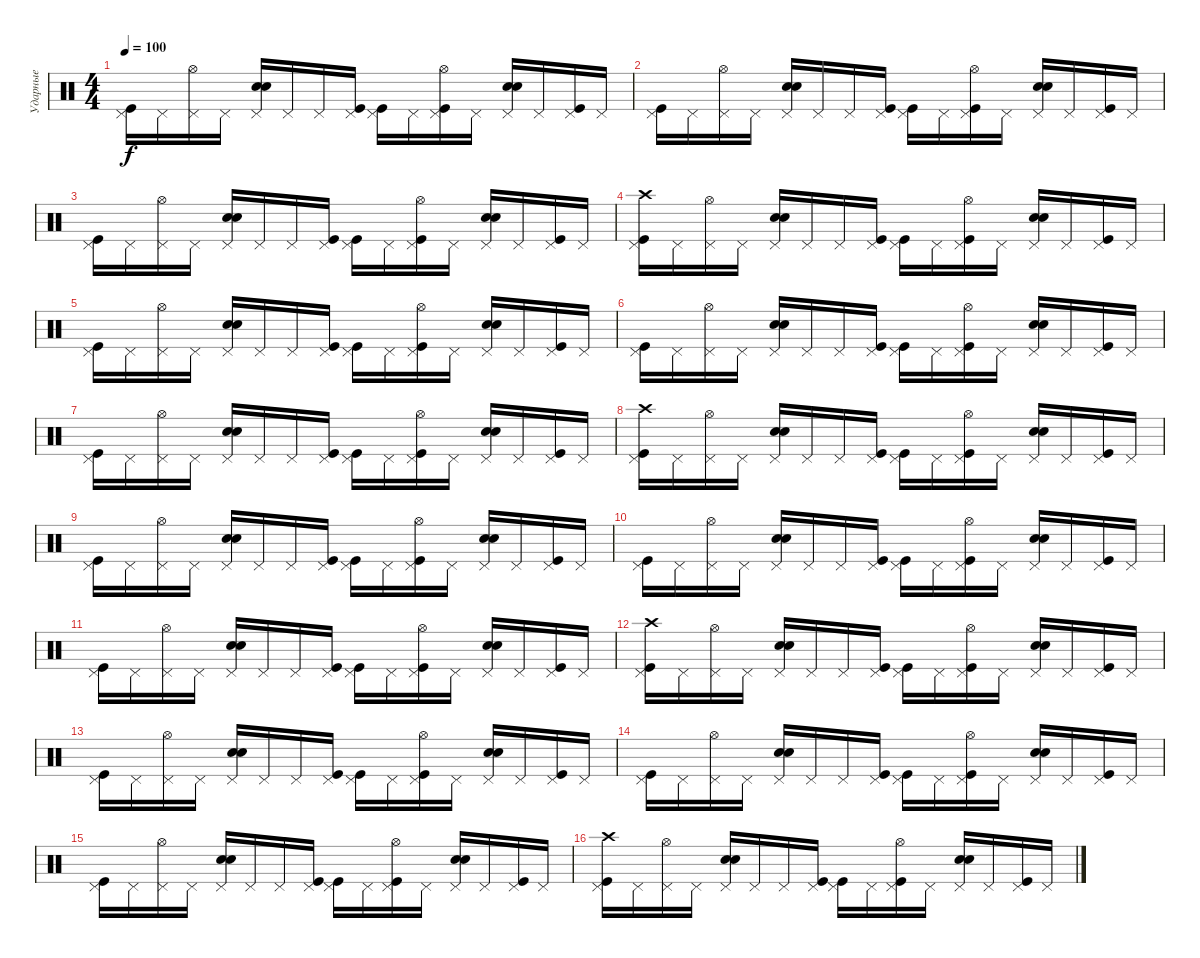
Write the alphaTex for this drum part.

\track ("Ударные" "Ударные") {instrument percussion}
\staff {score}
\articulation defaults
\ts (4 4)
\tempo 100
\clef neutral
\ks c
("Kick (hit)" "Pedal Hi-Hat (hit)").16{dy f} "Pedal Hi-Hat (hit)".16 ("Pedal Hi-Hat (hit)" "Hi-Hat (open)").16 "Pedal Hi-Hat (hit)".16 ("Pedal Hi-Hat (hit)" "Electric Snare (hit)" "Hand Clap (hit)").16 "Pedal Hi-Hat (hit)".16 "Pedal Hi-Hat (hit)".16 ("Kick (hit)" "Pedal Hi-Hat (hit)").16 ("Kick (hit)" "Pedal Hi-Hat (hit)").16 "Pedal Hi-Hat (hit)".16 ("Kick (hit)" "Pedal Hi-Hat (hit)" "Hi-Hat (open)").16 "Pedal Hi-Hat (hit)".16 ("Pedal Hi-Hat (hit)" "Electric Snare (hit)" "Hand Clap (hit)").16 "Pedal Hi-Hat (hit)".16 ("Kick (hit)" "Pedal Hi-Hat (hit)").16 "Pedal Hi-Hat (hit)".16 |
("Kick (hit)" "Pedal Hi-Hat (hit)").16 "Pedal Hi-Hat (hit)".16 ("Pedal Hi-Hat (hit)" "Hi-Hat (open)").16 "Pedal Hi-Hat (hit)".16 ("Pedal Hi-Hat (hit)" "Electric Snare (hit)" "Hand Clap (hit)").16 "Pedal Hi-Hat (hit)".16 "Pedal Hi-Hat (hit)".16 ("Kick (hit)" "Pedal Hi-Hat (hit)").16 ("Kick (hit)" "Pedal Hi-Hat (hit)").16 "Pedal Hi-Hat (hit)".16 ("Kick (hit)" "Pedal Hi-Hat (hit)" "Hi-Hat (open)").16 "Pedal Hi-Hat (hit)".16 ("Pedal Hi-Hat (hit)" "Electric Snare (hit)" "Hand Clap (hit)").16 "Pedal Hi-Hat (hit)".16 ("Kick (hit)" "Pedal Hi-Hat (hit)").16 "Pedal Hi-Hat (hit)".16 |
("Kick (hit)" "Pedal Hi-Hat (hit)").16 "Pedal Hi-Hat (hit)".16 ("Pedal Hi-Hat (hit)" "Hi-Hat (open)").16 "Pedal Hi-Hat (hit)".16 ("Pedal Hi-Hat (hit)" "Electric Snare (hit)" "Hand Clap (hit)").16 "Pedal Hi-Hat (hit)".16 "Pedal Hi-Hat (hit)".16 ("Kick (hit)" "Pedal Hi-Hat (hit)").16 ("Kick (hit)" "Pedal Hi-Hat (hit)").16 "Pedal Hi-Hat (hit)".16 ("Kick (hit)" "Pedal Hi-Hat (hit)" "Hi-Hat (open)").16 "Pedal Hi-Hat (hit)".16 ("Pedal Hi-Hat (hit)" "Electric Snare (hit)" "Hand Clap (hit)").16 "Pedal Hi-Hat (hit)".16 ("Kick (hit)" "Pedal Hi-Hat (hit)").16 "Pedal Hi-Hat (hit)".16 |
("Kick (hit)" "Pedal Hi-Hat (hit)" "Crash high (hit)").16 "Pedal Hi-Hat (hit)".16 ("Pedal Hi-Hat (hit)" "Hi-Hat (open)").16 "Pedal Hi-Hat (hit)".16 ("Pedal Hi-Hat (hit)" "Electric Snare (hit)" "Hand Clap (hit)").16 "Pedal Hi-Hat (hit)".16 "Pedal Hi-Hat (hit)".16 ("Kick (hit)" "Pedal Hi-Hat (hit)").16 ("Kick (hit)" "Pedal Hi-Hat (hit)").16 "Pedal Hi-Hat (hit)".16 ("Kick (hit)" "Pedal Hi-Hat (hit)" "Hi-Hat (open)").16 "Pedal Hi-Hat (hit)".16 ("Pedal Hi-Hat (hit)" "Electric Snare (hit)" "Hand Clap (hit)").16 "Pedal Hi-Hat (hit)".16 ("Kick (hit)" "Pedal Hi-Hat (hit)").16 "Pedal Hi-Hat (hit)".16 |
("Kick (hit)" "Pedal Hi-Hat (hit)").16 "Pedal Hi-Hat (hit)".16 ("Pedal Hi-Hat (hit)" "Hi-Hat (open)").16 "Pedal Hi-Hat (hit)".16 ("Pedal Hi-Hat (hit)" "Electric Snare (hit)" "Hand Clap (hit)").16 "Pedal Hi-Hat (hit)".16 "Pedal Hi-Hat (hit)".16 ("Kick (hit)" "Pedal Hi-Hat (hit)").16 ("Kick (hit)" "Pedal Hi-Hat (hit)").16 "Pedal Hi-Hat (hit)".16 ("Kick (hit)" "Pedal Hi-Hat (hit)" "Hi-Hat (open)").16 "Pedal Hi-Hat (hit)".16 ("Pedal Hi-Hat (hit)" "Electric Snare (hit)" "Hand Clap (hit)").16 "Pedal Hi-Hat (hit)".16 ("Kick (hit)" "Pedal Hi-Hat (hit)").16 "Pedal Hi-Hat (hit)".16 |
("Kick (hit)" "Pedal Hi-Hat (hit)").16 "Pedal Hi-Hat (hit)".16 ("Pedal Hi-Hat (hit)" "Hi-Hat (open)").16 "Pedal Hi-Hat (hit)".16 ("Pedal Hi-Hat (hit)" "Electric Snare (hit)" "Hand Clap (hit)").16 "Pedal Hi-Hat (hit)".16 "Pedal Hi-Hat (hit)".16 ("Kick (hit)" "Pedal Hi-Hat (hit)").16 ("Kick (hit)" "Pedal Hi-Hat (hit)").16 "Pedal Hi-Hat (hit)".16 ("Kick (hit)" "Pedal Hi-Hat (hit)" "Hi-Hat (open)").16 "Pedal Hi-Hat (hit)".16 ("Pedal Hi-Hat (hit)" "Electric Snare (hit)" "Hand Clap (hit)").16 "Pedal Hi-Hat (hit)".16 ("Kick (hit)" "Pedal Hi-Hat (hit)").16 "Pedal Hi-Hat (hit)".16 |
("Kick (hit)" "Pedal Hi-Hat (hit)").16 "Pedal Hi-Hat (hit)".16 ("Pedal Hi-Hat (hit)" "Hi-Hat (open)").16 "Pedal Hi-Hat (hit)".16 ("Pedal Hi-Hat (hit)" "Electric Snare (hit)" "Hand Clap (hit)").16 "Pedal Hi-Hat (hit)".16 "Pedal Hi-Hat (hit)".16 ("Kick (hit)" "Pedal Hi-Hat (hit)").16 ("Kick (hit)" "Pedal Hi-Hat (hit)").16 "Pedal Hi-Hat (hit)".16 ("Kick (hit)" "Pedal Hi-Hat (hit)" "Hi-Hat (open)").16 "Pedal Hi-Hat (hit)".16 ("Pedal Hi-Hat (hit)" "Electric Snare (hit)" "Hand Clap (hit)").16 "Pedal Hi-Hat (hit)".16 ("Kick (hit)" "Pedal Hi-Hat (hit)").16 "Pedal Hi-Hat (hit)".16 |
("Kick (hit)" "Pedal Hi-Hat (hit)" "Crash high (hit)").16 "Pedal Hi-Hat (hit)".16 ("Pedal Hi-Hat (hit)" "Hi-Hat (open)").16 "Pedal Hi-Hat (hit)".16 ("Pedal Hi-Hat (hit)" "Electric Snare (hit)" "Hand Clap (hit)").16 "Pedal Hi-Hat (hit)".16 "Pedal Hi-Hat (hit)".16 ("Kick (hit)" "Pedal Hi-Hat (hit)").16 ("Kick (hit)" "Pedal Hi-Hat (hit)").16 "Pedal Hi-Hat (hit)".16 ("Kick (hit)" "Pedal Hi-Hat (hit)" "Hi-Hat (open)").16 "Pedal Hi-Hat (hit)".16 ("Pedal Hi-Hat (hit)" "Electric Snare (hit)" "Hand Clap (hit)").16 "Pedal Hi-Hat (hit)".16 ("Kick (hit)" "Pedal Hi-Hat (hit)").16 "Pedal Hi-Hat (hit)".16 |
("Kick (hit)" "Pedal Hi-Hat (hit)").16 "Pedal Hi-Hat (hit)".16 ("Pedal Hi-Hat (hit)" "Hi-Hat (open)").16 "Pedal Hi-Hat (hit)".16 ("Pedal Hi-Hat (hit)" "Electric Snare (hit)" "Hand Clap (hit)").16 "Pedal Hi-Hat (hit)".16 "Pedal Hi-Hat (hit)".16 ("Kick (hit)" "Pedal Hi-Hat (hit)").16 ("Kick (hit)" "Pedal Hi-Hat (hit)").16 "Pedal Hi-Hat (hit)".16 ("Kick (hit)" "Pedal Hi-Hat (hit)" "Hi-Hat (open)").16 "Pedal Hi-Hat (hit)".16 ("Pedal Hi-Hat (hit)" "Electric Snare (hit)" "Hand Clap (hit)").16 "Pedal Hi-Hat (hit)".16 ("Kick (hit)" "Pedal Hi-Hat (hit)").16 "Pedal Hi-Hat (hit)".16 |
("Kick (hit)" "Pedal Hi-Hat (hit)").16 "Pedal Hi-Hat (hit)".16 ("Pedal Hi-Hat (hit)" "Hi-Hat (open)").16 "Pedal Hi-Hat (hit)".16 ("Pedal Hi-Hat (hit)" "Electric Snare (hit)" "Hand Clap (hit)").16 "Pedal Hi-Hat (hit)".16 "Pedal Hi-Hat (hit)".16 ("Kick (hit)" "Pedal Hi-Hat (hit)").16 ("Kick (hit)" "Pedal Hi-Hat (hit)").16 "Pedal Hi-Hat (hit)".16 ("Kick (hit)" "Pedal Hi-Hat (hit)" "Hi-Hat (open)").16 "Pedal Hi-Hat (hit)".16 ("Pedal Hi-Hat (hit)" "Electric Snare (hit)" "Hand Clap (hit)").16 "Pedal Hi-Hat (hit)".16 ("Kick (hit)" "Pedal Hi-Hat (hit)").16 "Pedal Hi-Hat (hit)".16 |
("Kick (hit)" "Pedal Hi-Hat (hit)").16 "Pedal Hi-Hat (hit)".16 ("Pedal Hi-Hat (hit)" "Hi-Hat (open)").16 "Pedal Hi-Hat (hit)".16 ("Pedal Hi-Hat (hit)" "Electric Snare (hit)" "Hand Clap (hit)").16 "Pedal Hi-Hat (hit)".16 "Pedal Hi-Hat (hit)".16 ("Kick (hit)" "Pedal Hi-Hat (hit)").16 ("Kick (hit)" "Pedal Hi-Hat (hit)").16 "Pedal Hi-Hat (hit)".16 ("Kick (hit)" "Pedal Hi-Hat (hit)" "Hi-Hat (open)").16 "Pedal Hi-Hat (hit)".16 ("Pedal Hi-Hat (hit)" "Electric Snare (hit)" "Hand Clap (hit)").16 "Pedal Hi-Hat (hit)".16 ("Kick (hit)" "Pedal Hi-Hat (hit)").16 "Pedal Hi-Hat (hit)".16 |
("Kick (hit)" "Pedal Hi-Hat (hit)" "Crash high (hit)").16 "Pedal Hi-Hat (hit)".16 ("Pedal Hi-Hat (hit)" "Hi-Hat (open)").16 "Pedal Hi-Hat (hit)".16 ("Pedal Hi-Hat (hit)" "Electric Snare (hit)" "Hand Clap (hit)").16 "Pedal Hi-Hat (hit)".16 "Pedal Hi-Hat (hit)".16 ("Kick (hit)" "Pedal Hi-Hat (hit)").16 ("Kick (hit)" "Pedal Hi-Hat (hit)").16 "Pedal Hi-Hat (hit)".16 ("Kick (hit)" "Pedal Hi-Hat (hit)" "Hi-Hat (open)").16 "Pedal Hi-Hat (hit)".16 ("Pedal Hi-Hat (hit)" "Electric Snare (hit)" "Hand Clap (hit)").16 "Pedal Hi-Hat (hit)".16 ("Kick (hit)" "Pedal Hi-Hat (hit)").16 "Pedal Hi-Hat (hit)".16 |
("Kick (hit)" "Pedal Hi-Hat (hit)").16 "Pedal Hi-Hat (hit)".16 ("Pedal Hi-Hat (hit)" "Hi-Hat (open)").16 "Pedal Hi-Hat (hit)".16 ("Pedal Hi-Hat (hit)" "Electric Snare (hit)" "Hand Clap (hit)").16 "Pedal Hi-Hat (hit)".16 "Pedal Hi-Hat (hit)".16 ("Kick (hit)" "Pedal Hi-Hat (hit)").16 ("Kick (hit)" "Pedal Hi-Hat (hit)").16 "Pedal Hi-Hat (hit)".16 ("Kick (hit)" "Pedal Hi-Hat (hit)" "Hi-Hat (open)").16 "Pedal Hi-Hat (hit)".16 ("Pedal Hi-Hat (hit)" "Electric Snare (hit)" "Hand Clap (hit)").16 "Pedal Hi-Hat (hit)".16 ("Kick (hit)" "Pedal Hi-Hat (hit)").16 "Pedal Hi-Hat (hit)".16 |
("Kick (hit)" "Pedal Hi-Hat (hit)").16 "Pedal Hi-Hat (hit)".16 ("Pedal Hi-Hat (hit)" "Hi-Hat (open)").16 "Pedal Hi-Hat (hit)".16 ("Pedal Hi-Hat (hit)" "Electric Snare (hit)" "Hand Clap (hit)").16 "Pedal Hi-Hat (hit)".16 "Pedal Hi-Hat (hit)".16 ("Kick (hit)" "Pedal Hi-Hat (hit)").16 ("Kick (hit)" "Pedal Hi-Hat (hit)").16 "Pedal Hi-Hat (hit)".16 ("Kick (hit)" "Pedal Hi-Hat (hit)" "Hi-Hat (open)").16 "Pedal Hi-Hat (hit)".16 ("Pedal Hi-Hat (hit)" "Electric Snare (hit)" "Hand Clap (hit)").16 "Pedal Hi-Hat (hit)".16 ("Kick (hit)" "Pedal Hi-Hat (hit)").16 "Pedal Hi-Hat (hit)".16 |
("Kick (hit)" "Pedal Hi-Hat (hit)").16 "Pedal Hi-Hat (hit)".16 ("Pedal Hi-Hat (hit)" "Hi-Hat (open)").16 "Pedal Hi-Hat (hit)".16 ("Pedal Hi-Hat (hit)" "Electric Snare (hit)" "Hand Clap (hit)").16 "Pedal Hi-Hat (hit)".16 "Pedal Hi-Hat (hit)".16 ("Kick (hit)" "Pedal Hi-Hat (hit)").16 ("Kick (hit)" "Pedal Hi-Hat (hit)").16 "Pedal Hi-Hat (hit)".16 ("Kick (hit)" "Pedal Hi-Hat (hit)" "Hi-Hat (open)").16 "Pedal Hi-Hat (hit)".16 ("Pedal Hi-Hat (hit)" "Electric Snare (hit)" "Hand Clap (hit)").16 "Pedal Hi-Hat (hit)".16 ("Kick (hit)" "Pedal Hi-Hat (hit)").16 "Pedal Hi-Hat (hit)".16 |
("Kick (hit)" "Pedal Hi-Hat (hit)" "Crash high (hit)").16 "Pedal Hi-Hat (hit)".16 ("Pedal Hi-Hat (hit)" "Hi-Hat (open)").16 "Pedal Hi-Hat (hit)".16 ("Pedal Hi-Hat (hit)" "Electric Snare (hit)" "Hand Clap (hit)").16 "Pedal Hi-Hat (hit)".16 "Pedal Hi-Hat (hit)".16 ("Kick (hit)" "Pedal Hi-Hat (hit)").16 ("Kick (hit)" "Pedal Hi-Hat (hit)").16 "Pedal Hi-Hat (hit)".16 ("Kick (hit)" "Pedal Hi-Hat (hit)" "Hi-Hat (open)").16 "Pedal Hi-Hat (hit)".16 ("Pedal Hi-Hat (hit)" "Electric Snare (hit)" "Hand Clap (hit)").16 "Pedal Hi-Hat (hit)".16 ("Kick (hit)" "Pedal Hi-Hat (hit)").16 "Pedal Hi-Hat (hit)".16
